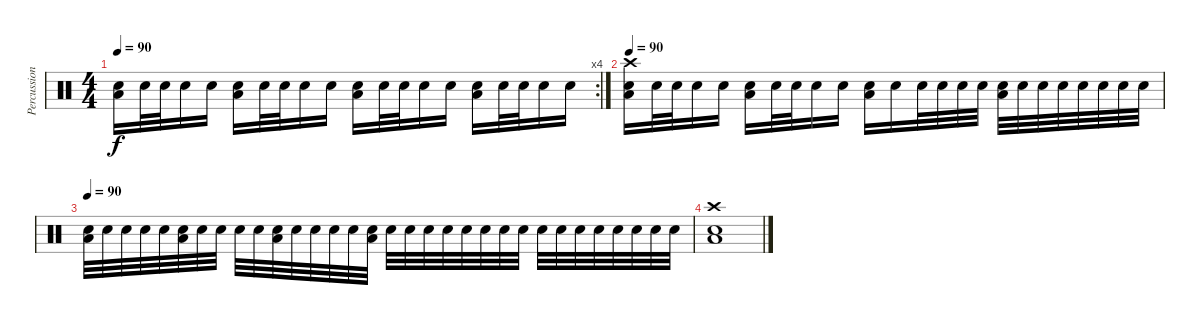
\track ("Percussions" "Percussion") {instrument percussion}
\staff {score}
\articulation defaults
\rc 4
\ts (4 4)
\tempo 90
\clef neutral
\ks c
("Low Floor Tom (hit)" "Electric Snare (hit)").16{dy f} "Electric Snare (hit)".32 "Electric Snare (hit)".32 "Electric Snare (hit)".16 "Electric Snare (hit)".16 ("Low Floor Tom (hit)" "Electric Snare (hit)").16 "Electric Snare (hit)".32 "Electric Snare (hit)".32 "Electric Snare (hit)".16 "Electric Snare (hit)".16 ("Low Floor Tom (hit)" "Electric Snare (hit)").16 "Electric Snare (hit)".32 "Electric Snare (hit)".32 "Electric Snare (hit)".16 "Electric Snare (hit)".16 ("Low Floor Tom (hit)" "Electric Snare (hit)").16 "Electric Snare (hit)".32 "Electric Snare (hit)".32 "Electric Snare (hit)".16 "Electric Snare (hit)".16 |
\tempo 90
("Low Floor Tom (hit)" "Electric Snare (hit)" "Crash high (hit)").16 "Electric Snare (hit)".32 "Electric Snare (hit)".32 "Electric Snare (hit)".16 "Electric Snare (hit)".16 ("Low Floor Tom (hit)" "Electric Snare (hit)").16 "Electric Snare (hit)".32 "Electric Snare (hit)".32 "Electric Snare (hit)".16 "Electric Snare (hit)".16 ("Low Floor Tom (hit)" "Electric Snare (hit)").16 "Electric Snare (hit)".16 "Electric Snare (hit)".32 "Electric Snare (hit)".32 "Electric Snare (hit)".32 "Electric Snare (hit)".32 ("Low Floor Tom (hit)" "Electric Snare (hit)").32 "Electric Snare (hit)".32 "Electric Snare (hit)".32 "Electric Snare (hit)".32 "Electric Snare (hit)".32 "Electric Snare (hit)".32 "Electric Snare (hit)".32 "Electric Snare (hit)".32 |
\tempo 90
("Low Floor Tom (hit)" "Electric Snare (hit)").32 "Electric Snare (hit)".32 "Electric Snare (hit)".32 "Electric Snare (hit)".32 "Electric Snare (hit)".32 ("Low Floor Tom (hit)" "Electric Snare (hit)").32 "Electric Snare (hit)".32 "Electric Snare (hit)".32 "Electric Snare (hit)".32 "Electric Snare (hit)".32 ("Low Floor Tom (hit)" "Electric Snare (hit)").32 "Electric Snare (hit)".32 "Electric Snare (hit)".32 "Electric Snare (hit)".32 "Electric Snare (hit)".32 ("Low Floor Tom (hit)" "Electric Snare (hit)").32 "Electric Snare (hit)".32 "Electric Snare (hit)".32 "Electric Snare (hit)".32 "Electric Snare (hit)".32 "Electric Snare (hit)".32 "Electric Snare (hit)".32 "Electric Snare (hit)".32 "Electric Snare (hit)".32 "Electric Snare (hit)".32 "Electric Snare (hit)".32 "Electric Snare (hit)".32 "Electric Snare (hit)".32 "Electric Snare (hit)".32 "Electric Snare (hit)".32 "Electric Snare (hit)".32 "Electric Snare (hit)".32 |
("Low Floor Tom (hit)" "Electric Snare (hit)" "Crash high (hit)").1
